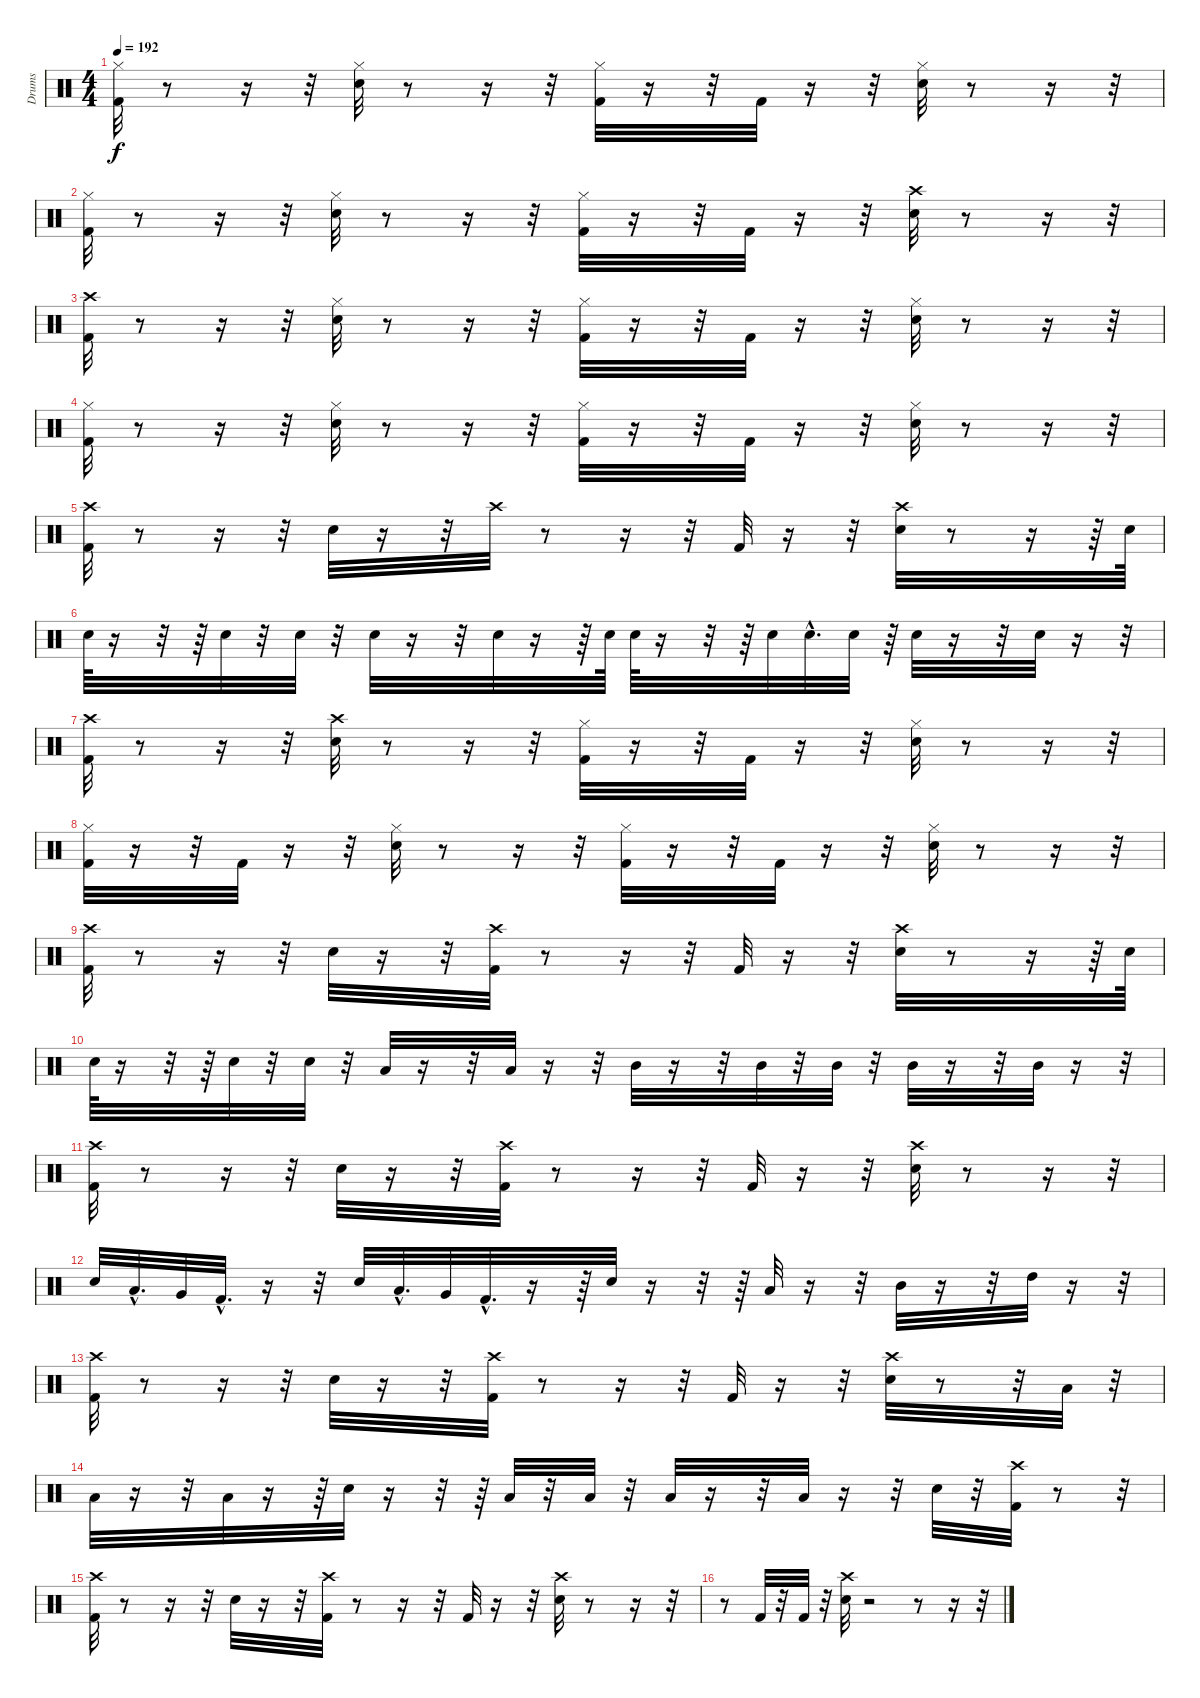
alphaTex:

\track ("Drums" "Drums") {instrument percussion}
\staff {score}
\articulation defaults
\ts (4 4)
\tempo 192
\clef neutral
\ks c
("Hi-Hat (closed)" "Kick (hit) 2").32{dy f} r.8 r.16 r.32 ("Hi-Hat (closed)" "Snare (hit) 2").32 r.8 r.16 r.32 ("Hi-Hat (closed)" "Kick (hit) 2").32 r.16 r.32 "Kick (hit) 2".32 r.16 r.32 ("Snare (hit) 2" "Hi-Hat (closed)").32 r.8 r.16 r.32 |
("Kick (hit) 2" "Hi-Hat (closed)").32 r.8 r.16 r.32 ("Snare (hit) 2" "Hi-Hat (closed)").32 r.8 r.16 r.32 ("Kick (hit) 2" "Hi-Hat (closed)").32 r.16 r.32 "Kick (hit) 2".32 r.16 r.32 ("Crash high (hit)" "Snare (hit) 2").32 r.8 r.16 r.32 |
("Crash high (hit)" "Kick (hit) 2").32 r.8 r.16 r.32 ("Snare (hit) 2" "Hi-Hat (closed)").32 r.8 r.16 r.32 ("Kick (hit) 2" "Hi-Hat (closed)").32 r.16 r.32 "Kick (hit) 2".32 r.16 r.32 ("Snare (hit) 2" "Hi-Hat (closed)").32 r.8 r.16 r.32 |
("Kick (hit) 2" "Hi-Hat (closed)").32 r.8 r.16 r.32 ("Snare (hit) 2" "Hi-Hat (closed)").32 r.8 r.16 r.32 ("Kick (hit) 2" "Hi-Hat (closed)").32 r.16 r.32 "Kick (hit) 2".32 r.16 r.32 ("Snare (hit) 2" "Hi-Hat (closed)").32 r.8 r.16 r.32 |
("Crash high (hit)" "Kick (hit) 2").32 r.8 r.16 r.32 "Snare (hit) 2".32 r.16 r.32 "Crash high (hit)".32 r.8 r.16 r.32 "Kick (hit) 2".32 r.16 r.32 ("Crash high (hit)" "Snare (hit) 2").32 r.8 r.16 r.64 "Snare (hit) 2".64 |
"Snare (hit) 2".64 r.16 r.32 r.64 "Snare (hit) 2".32 r.32 "Snare (hit) 2".32 r.32 "Snare (hit) 2".32 r.16 r.32 "Snare (hit) 2".32 r.16 r.64 "Snare (hit) 2".64 "Snare (hit) 2".64 r.16 r.32 r.64 "Snare (hit) 2".32 "Snare (hit) 2"{hac}.32{d} "Snare (hit) 2".32 r.64 "Snare (hit) 2".32 r.16 r.32 "Snare (hit) 2".32 r.16 r.32 |
("Crash high (hit)" "Kick (hit) 2").32 r.8 r.16 r.32 ("Crash high (hit)" "Snare (hit) 2").32 r.8 r.16 r.32 ("Hi-Hat (closed)" "Kick (hit) 2").32 r.16 r.32 "Kick (hit) 2".32 r.16 r.32 ("Hi-Hat (closed)" "Snare (hit) 2").32 r.8 r.16 r.32 |
("Kick (hit) 2" "Hi-Hat (closed)").32 r.16 r.32 "Kick (hit) 2".32 r.16 r.32 ("Snare (hit) 2" "Hi-Hat (closed)").32 r.8 r.16 r.32 ("Kick (hit) 2" "Hi-Hat (closed)").32 r.16 r.32 "Kick (hit) 2".32 r.16 r.32 ("Snare (hit) 2" "Hi-Hat (closed)").32 r.8 r.16 r.32 |
("Crash high (hit)" "Kick (hit) 2").32 r.8 r.16 r.32 "Snare (hit) 2".32 r.16 r.32 ("Crash high (hit)" "Kick (hit) 2").32 r.8 r.16 r.32 "Kick (hit) 2".32 r.16 r.32 ("Crash high (hit)" "Snare (hit) 2").32 r.8 r.16 r.64 "Snare (hit) 2".64 |
"Snare (hit) 2".64 r.16 r.32 r.64 "Snare (hit) 2".32 r.32 "Snare (hit) 2".32 r.32 "Low Tom (hit)".32 r.16 r.32 "Low Tom (hit)".32 r.16 r.32 "Mid Tom (hit)".32 r.16 r.32 "Mid Tom (hit)".32 r.32 "Mid Tom (hit)".32 r.32 "Mid Tom (hit)".32 r.16 r.32 "Mid Tom (hit)".32 r.16 r.32 |
("Kick (hit) 2" "Crash high (hit)").32 r.8 r.16 r.32 "Snare (hit) 2".32 r.16 r.32 ("Crash high (hit)" "Kick (hit) 2").32 r.8 r.16 r.32 "Kick (hit) 2".32 r.16 r.32 ("Crash high (hit)" "Snare (hit) 2").32 r.8 r.16 r.32 |
"Snare (hit) 2".32 "Low Tom (hit)"{hac}.32{d} "Very Low Tom (hit)".32 "Kick (hit) 2"{hac}.32{d} r.16 r.32 "Snare (hit) 2".32 "Low Tom (hit)"{hac}.32{d} "Very Low Tom (hit)".32 "Kick (hit) 2"{hac}.32{d} r.16 r.64 "Snare (hit) 2".32 r.16 r.32 r.64 "Low Tom (hit)".32 r.16 r.32 "Mid Tom (hit)".32 r.16 r.32 "High Tom (hit)".32 r.16 r.32 |
("Kick (hit) 2" "Crash high (hit)").32 r.8 r.16 r.32 "Snare (hit) 2".32 r.16 r.32 ("Crash high (hit)" "Kick (hit) 2").32 r.8 r.16 r.32 "Kick (hit) 2".32 r.16 r.32 ("Crash high (hit)" "Snare (hit) 2").32 r.8 r.32 "Low Tom (hit)".32 r.32 |
"Low Tom (hit)".32 r.16 r.32 "Low Tom (hit)".32 r.16 r.64 "Snare (hit) 2".32 r.16 r.32 r.64 "Low Tom (hit)".32 r.32 "Low Tom (hit)".32 r.32 "Low Tom (hit)".32 r.16 r.32 "Low Tom (hit)".32 r.16 r.32 "Snare (hit) 2".32 r.32 ("Kick (hit) 2" "Crash high (hit)").32 r.8 r.32 |
("Crash high (hit)" "Kick (hit) 2").32 r.8 r.16 r.32 "Snare (hit) 2".32 r.16 r.32 ("Crash high (hit)" "Kick (hit) 2").32 r.8 r.16 r.32 "Kick (hit) 2".32 r.16 r.32 ("Snare (hit) 2" "Crash high (hit)").32 r.8 r.16 r.32 |
r.8 "Kick (hit) 2".32 r.32 "Kick (hit) 2".32 r.32 ("Crash high (hit)" "Snare (hit) 2").32 r.2 r.8 r.16 r.32
